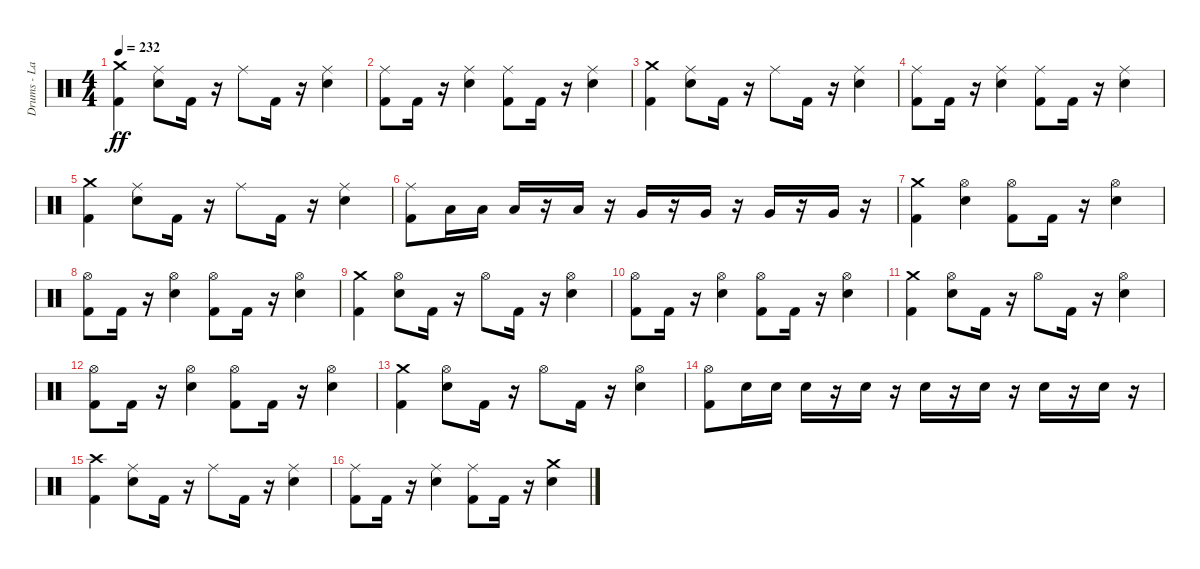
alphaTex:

\track ("Drums - Larzon" "Drums - La") {instrument percussion}
\staff {score}
\articulation defaults
\ts (4 4)
\tempo 232
\clef neutral
\ks c
("Kick (hit) 2" "Crash medium (hit)").4{dy ff} ("Electric Snare (hit)" "Ride (middle)").8 "Kick (hit) 2".16 r.16 "Ride (middle)".8 "Kick (hit) 2".16 r.16 ("Electric Snare (hit)" "Ride (middle)").4 |
("Kick (hit) 2" "Ride (middle)").8 "Kick (hit) 2".16 r.16 ("Electric Snare (hit)" "Ride (middle)").4 ("Kick (hit) 2" "Ride (middle)").8 "Kick (hit) 2".16 r.16 ("Electric Snare (hit)" "Ride (middle)").4 |
("Kick (hit) 2" "Crash medium (hit)").4 ("Electric Snare (hit)" "Ride (middle)").8 "Kick (hit) 2".16 r.16 "Ride (middle)".8 "Kick (hit) 2".16 r.16 ("Electric Snare (hit)" "Ride (middle)").4 |
("Kick (hit) 2" "Ride (middle)").8 "Kick (hit) 2".16 r.16 ("Electric Snare (hit)" "Ride (middle)").4 ("Kick (hit) 2" "Ride (middle)").8 "Kick (hit) 2".16 r.16 ("Electric Snare (hit)" "Ride (middle)").4 |
("Kick (hit) 2" "Crash medium (hit)").4 ("Electric Snare (hit)" "Ride (middle)").8 "Kick (hit) 2".16 r.16 "Ride (middle)".8 "Kick (hit) 2".16 r.16 ("Electric Snare (hit)" "Ride (middle)").4 |
("Kick (hit) 2" "Ride (middle)").8 "Low Tom (hit)".16 "Low Tom (hit)".16 "Low Tom (hit)".16 r.16 "Low Tom (hit)".16 r.16 "Very Low Tom (hit)".16 r.16 "Very Low Tom (hit)".16 r.16 "Very Low Tom (hit)".16 r.16 "Very Low Tom (hit)".16 r.16 |
("Kick (hit) 2" "Crash medium (hit)").4 ("Electric Snare (hit)" "Hi-Hat (open)").4 ("Kick (hit) 2" "Hi-Hat (open)").8 "Kick (hit) 2".16 r.16 ("Electric Snare (hit)" "Hi-Hat (open)").4 |
("Kick (hit) 2" "Hi-Hat (open)").8 "Kick (hit) 2".16 r.16 ("Electric Snare (hit)" "Hi-Hat (open)").4 ("Kick (hit) 2" "Hi-Hat (open)").8 "Kick (hit) 2".16 r.16 ("Electric Snare (hit)" "Hi-Hat (open)").4 |
("Kick (hit) 2" "Crash medium (hit)").4 ("Electric Snare (hit)" "Hi-Hat (open)").8 "Kick (hit) 2".16 r.16 "Hi-Hat (open)".8 "Kick (hit) 2".16 r.16 ("Electric Snare (hit)" "Hi-Hat (open)").4 |
("Kick (hit) 2" "Hi-Hat (open)").8 "Kick (hit) 2".16 r.16 ("Electric Snare (hit)" "Hi-Hat (open)").4 ("Kick (hit) 2" "Hi-Hat (open)").8 "Kick (hit) 2".16 r.16 ("Electric Snare (hit)" "Hi-Hat (open)").4 |
("Kick (hit) 2" "Crash medium (hit)").4 ("Electric Snare (hit)" "Hi-Hat (open)").8 "Kick (hit) 2".16 r.16 "Hi-Hat (open)".8 "Kick (hit) 2".16 r.16 ("Electric Snare (hit)" "Hi-Hat (open)").4 |
("Kick (hit) 2" "Hi-Hat (open)").8 "Kick (hit) 2".16 r.16 ("Electric Snare (hit)" "Hi-Hat (open)").4 ("Kick (hit) 2" "Hi-Hat (open)").8 "Kick (hit) 2".16 r.16 ("Electric Snare (hit)" "Hi-Hat (open)").4 |
("Kick (hit) 2" "Crash medium (hit)").4 ("Electric Snare (hit)" "Hi-Hat (open)").8 "Kick (hit) 2".16 r.16 "Hi-Hat (open)".8 "Kick (hit) 2".16 r.16 ("Electric Snare (hit)" "Hi-Hat (open)").4 |
("Kick (hit) 2" "Hi-Hat (open)").8 "Electric Snare (hit)".16 "Electric Snare (hit)".16 "Electric Snare (hit)".16 r.16 "Electric Snare (hit)".16 r.16 "Electric Snare (hit)".16 r.16 "Electric Snare (hit)".16 r.16 "Electric Snare (hit)".16 r.16 "Electric Snare (hit)".16 r.16 |
("Crash high (hit)" "Kick (hit) 2").4 ("Ride (middle)" "Electric Snare (hit)").8 "Kick (hit) 2".16 r.16 "Ride (middle)".8 "Kick (hit) 2".16 r.16 ("Ride (middle)" "Electric Snare (hit)").4 |
("Ride (middle)" "Kick (hit) 2").8 "Kick (hit) 2".16 r.16 ("Ride (middle)" "Electric Snare (hit)").4 ("Ride (middle)" "Kick (hit) 2").8 "Kick (hit) 2".16 r.16 ("Crash medium (hit)" "Electric Snare (hit)").4
